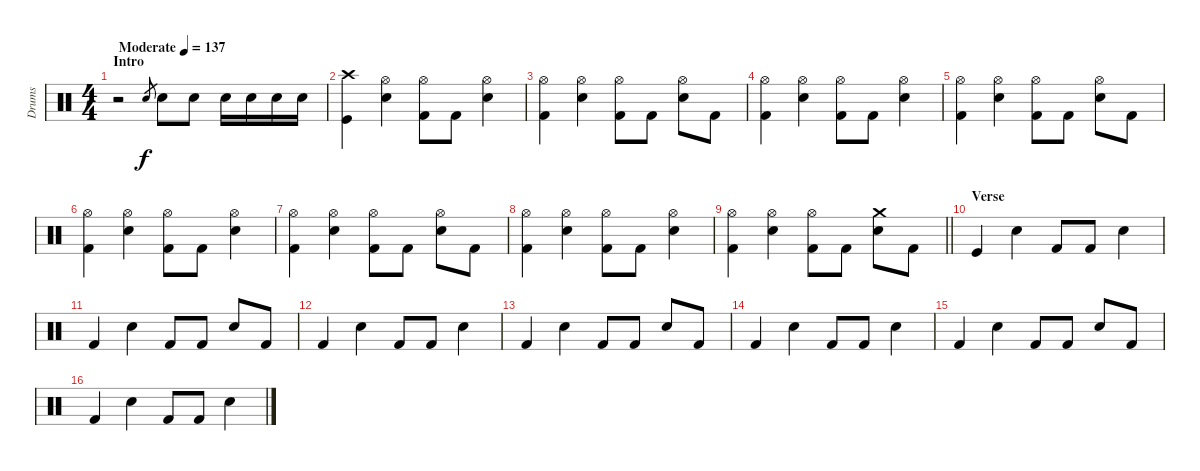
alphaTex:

\track ("Drums" "Drums") {instrument percussion}
\staff {score}
\articulation defaults
\ts (4 4)
\section ("" "Intro ")
\tempo (137 "Moderate")
\clef neutral
\ks c
r.2{dy f} "Electric Snare (hit)".8{gr} "Electric Snare (hit)".8 "Electric Snare (hit)".8 "Electric Snare (hit)".16 "Electric Snare (hit)".16 "Electric Snare (hit)".16 "Electric Snare (hit)".16 |
("Crash high (hit)" "Kick (hit)").4 ("Hi-Hat (open)" "Electric Snare (hit)").4 ("Hi-Hat (open)" "Kick (hit) 2").8 "Kick (hit) 2".8 ("Hi-Hat (open)" "Electric Snare (hit)").4 |
("Hi-Hat (open)" "Kick (hit) 2").4 ("Hi-Hat (open)" "Electric Snare (hit)").4 ("Hi-Hat (open)" "Kick (hit) 2").8 "Kick (hit) 2".8 ("Hi-Hat (open)" "Electric Snare (hit)").8 "Kick (hit) 2".8 |
("Hi-Hat (open)" "Kick (hit) 2").4 ("Hi-Hat (open)" "Electric Snare (hit)").4 ("Hi-Hat (open)" "Kick (hit) 2").8 "Kick (hit) 2".8 ("Hi-Hat (open)" "Electric Snare (hit)").4 |
("Hi-Hat (open)" "Kick (hit) 2").4 ("Hi-Hat (open)" "Electric Snare (hit)").4 ("Hi-Hat (open)" "Kick (hit) 2").8 "Kick (hit) 2".8 ("Hi-Hat (open)" "Electric Snare (hit)").8 "Kick (hit) 2".8 |
("Hi-Hat (open)" "Kick (hit) 2").4 ("Hi-Hat (open)" "Electric Snare (hit)").4 ("Hi-Hat (open)" "Kick (hit) 2").8 "Kick (hit) 2".8 ("Hi-Hat (open)" "Electric Snare (hit)").4 |
("Hi-Hat (open)" "Kick (hit) 2").4 ("Hi-Hat (open)" "Electric Snare (hit)").4 ("Hi-Hat (open)" "Kick (hit) 2").8 "Kick (hit) 2".8 ("Hi-Hat (open)" "Electric Snare (hit)").8 "Kick (hit) 2".8 |
("Hi-Hat (open)" "Kick (hit) 2").4 ("Hi-Hat (open)" "Electric Snare (hit)").4 ("Hi-Hat (open)" "Kick (hit) 2").8 "Kick (hit) 2".8 ("Hi-Hat (open)" "Electric Snare (hit)").4 |
\barLineRight lightlight
("Hi-Hat (open)" "Kick (hit) 2").4 ("Hi-Hat (open)" "Electric Snare (hit)").4 ("Hi-Hat (open)" "Kick (hit) 2").8 "Kick (hit) 2".8 ("Crash medium (hit)" "Electric Snare (hit)").8 "Kick (hit) 2".8 |
\section ("" "Verse ")
"Kick (hit)".4 "Electric Snare (hit)".4 "Kick (hit) 2".8 "Kick (hit) 2".8 "Electric Snare (hit)".4 |
"Kick (hit) 2".4 "Electric Snare (hit)".4 "Kick (hit) 2".8 "Kick (hit) 2".8 "Electric Snare (hit)".8 "Kick (hit) 2".8 |
"Kick (hit) 2".4 "Electric Snare (hit)".4 "Kick (hit) 2".8 "Kick (hit) 2".8 "Electric Snare (hit)".4 |
"Kick (hit) 2".4 "Electric Snare (hit)".4 "Kick (hit) 2".8 "Kick (hit) 2".8 "Electric Snare (hit)".8 "Kick (hit) 2".8 |
"Kick (hit) 2".4 "Electric Snare (hit)".4 "Kick (hit) 2".8 "Kick (hit) 2".8 "Electric Snare (hit)".4 |
"Kick (hit) 2".4 "Electric Snare (hit)".4 "Kick (hit) 2".8 "Kick (hit) 2".8 "Electric Snare (hit)".8 "Kick (hit) 2".8 |
"Kick (hit) 2".4 "Electric Snare (hit)".4 "Kick (hit) 2".8 "Kick (hit) 2".8 "Electric Snare (hit)".4
